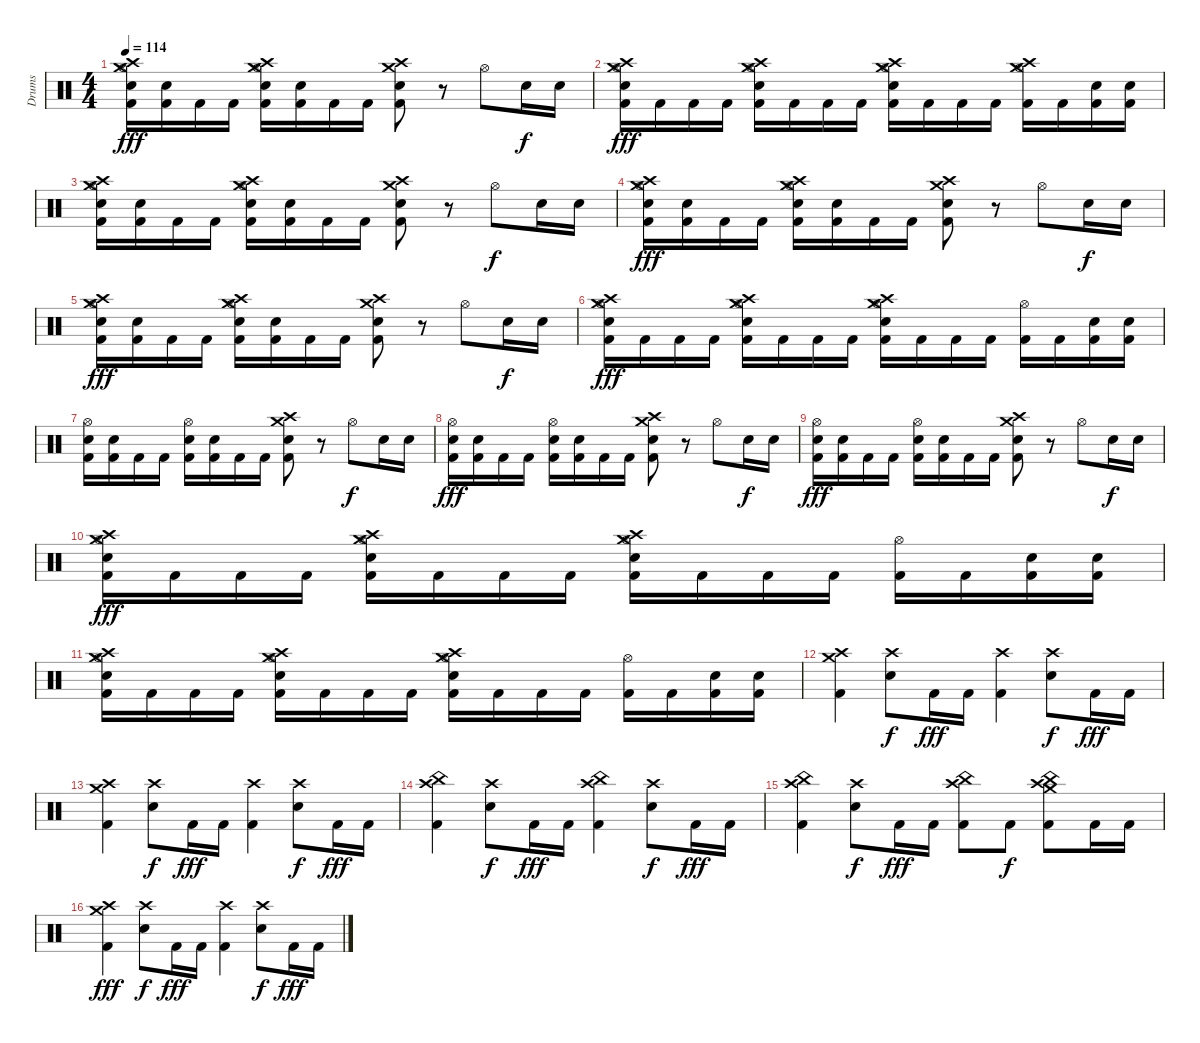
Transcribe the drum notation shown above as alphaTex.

\track ("Drums" "Drums") {instrument percussion}
\staff {score}
\articulation defaults
\ts (4 4)
\tempo 114
\clef neutral
\ks c
("Crash medium (hit)" "Crash high (hit)" "Hi-Hat (open)" "Snare (hit) 2" "Kick (hit) 2").16{dy fff} ("Snare (hit) 2" "Kick (hit) 2").16 "Kick (hit) 2".16 "Kick (hit) 2".16 ("Crash medium (hit)" "Crash high (hit)" "Hi-Hat (open)" "Snare (hit) 2" "Kick (hit) 2").16 ("Snare (hit) 2" "Kick (hit) 2").16 "Kick (hit) 2".16 "Kick (hit) 2".16 ("Crash medium (hit)" "Crash high (hit)" "Snare (hit) 2" "Kick (hit) 2").8 r.8 "Hi-Hat (open)".8 "Snare (hit) 2".16{dy f} "Snare (hit) 2".16 |
("Crash medium (hit)" "Crash high (hit)" "Hi-Hat (open)" "Snare (hit) 2" "Kick (hit) 2").16{dy fff} "Kick (hit) 2".16 "Kick (hit) 2".16 "Kick (hit) 2".16 ("Crash medium (hit)" "Crash high (hit)" "Hi-Hat (open)" "Snare (hit) 2" "Kick (hit) 2").16 "Kick (hit) 2".16 "Kick (hit) 2".16 "Kick (hit) 2".16 ("Crash medium (hit)" "Crash high (hit)" "Hi-Hat (open)" "Snare (hit) 2" "Kick (hit) 2").16 "Kick (hit) 2".16 "Kick (hit) 2".16 "Kick (hit) 2".16 ("Crash medium (hit)" "Crash high (hit)" "Hi-Hat (open)" "Kick (hit) 2").16 "Kick (hit) 2".16 ("Snare (hit) 2" "Kick (hit) 2").16 ("Snare (hit) 2" "Kick (hit) 2").16 |
("Crash medium (hit)" "Crash high (hit)" "Hi-Hat (open)" "Snare (hit) 2" "Kick (hit) 2").16 ("Snare (hit) 2" "Kick (hit) 2").16 "Kick (hit) 2".16 "Kick (hit) 2".16 ("Crash medium (hit)" "Crash high (hit)" "Hi-Hat (open)" "Snare (hit) 2" "Kick (hit) 2").16 ("Snare (hit) 2" "Kick (hit) 2").16 "Kick (hit) 2".16 "Kick (hit) 2".16 ("Crash medium (hit)" "Crash high (hit)" "Snare (hit) 2" "Kick (hit) 2").8 r.8 "Hi-Hat (open)".8{dy f} "Snare (hit) 2".16 "Snare (hit) 2".16 |
("Crash medium (hit)" "Crash high (hit)" "Hi-Hat (open)" "Snare (hit) 2" "Kick (hit) 2").16{dy fff} ("Snare (hit) 2" "Kick (hit) 2").16 "Kick (hit) 2".16 "Kick (hit) 2".16 ("Crash medium (hit)" "Crash high (hit)" "Hi-Hat (open)" "Snare (hit) 2" "Kick (hit) 2").16 ("Snare (hit) 2" "Kick (hit) 2").16 "Kick (hit) 2".16 "Kick (hit) 2".16 ("Crash medium (hit)" "Crash high (hit)" "Snare (hit) 2" "Kick (hit) 2").8 r.8 "Hi-Hat (open)".8 "Snare (hit) 2".16{dy f} "Snare (hit) 2".16 |
("Crash medium (hit)" "Crash high (hit)" "Hi-Hat (open)" "Snare (hit) 2" "Kick (hit) 2").16{dy fff} ("Snare (hit) 2" "Kick (hit) 2").16 "Kick (hit) 2".16 "Kick (hit) 2".16 ("Crash medium (hit)" "Crash high (hit)" "Hi-Hat (open)" "Snare (hit) 2" "Kick (hit) 2").16 ("Snare (hit) 2" "Kick (hit) 2").16 "Kick (hit) 2".16 "Kick (hit) 2".16 ("Crash medium (hit)" "Crash high (hit)" "Snare (hit) 2" "Kick (hit) 2").8 r.8 "Hi-Hat (open)".8 "Snare (hit) 2".16{dy f} "Snare (hit) 2".16 |
("Crash medium (hit)" "Crash high (hit)" "Hi-Hat (open)" "Snare (hit) 2" "Kick (hit) 2").16{dy fff} "Kick (hit) 2".16 "Kick (hit) 2".16 "Kick (hit) 2".16 ("Crash medium (hit)" "Crash high (hit)" "Hi-Hat (open)" "Snare (hit) 2" "Kick (hit) 2").16 "Kick (hit) 2".16 "Kick (hit) 2".16 "Kick (hit) 2".16 ("Crash medium (hit)" "Crash high (hit)" "Hi-Hat (open)" "Snare (hit) 2" "Kick (hit) 2").16 "Kick (hit) 2".16 "Kick (hit) 2".16 "Kick (hit) 2".16 ("Hi-Hat (open)" "Kick (hit) 2").16 "Kick (hit) 2".16 ("Snare (hit) 2" "Kick (hit) 2").16 ("Snare (hit) 2" "Kick (hit) 2").16 |
("Hi-Hat (open)" "Snare (hit) 2" "Kick (hit) 2").16 ("Snare (hit) 2" "Kick (hit) 2").16 "Kick (hit) 2".16 "Kick (hit) 2".16 ("Hi-Hat (open)" "Snare (hit) 2" "Kick (hit) 2").16 ("Snare (hit) 2" "Kick (hit) 2").16 "Kick (hit) 2".16 "Kick (hit) 2".16 ("Crash medium (hit)" "Crash high (hit)" "Snare (hit) 2" "Kick (hit) 2").8 r.8 "Hi-Hat (open)".8{dy f} "Snare (hit) 2".16 "Snare (hit) 2".16 |
("Hi-Hat (open)" "Snare (hit) 2" "Kick (hit) 2").16{dy fff} ("Snare (hit) 2" "Kick (hit) 2").16 "Kick (hit) 2".16 "Kick (hit) 2".16 ("Hi-Hat (open)" "Snare (hit) 2" "Kick (hit) 2").16 ("Snare (hit) 2" "Kick (hit) 2").16 "Kick (hit) 2".16 "Kick (hit) 2".16 ("Crash medium (hit)" "Crash high (hit)" "Snare (hit) 2" "Kick (hit) 2").8 r.8 "Hi-Hat (open)".8 "Snare (hit) 2".16{dy f} "Snare (hit) 2".16 |
("Hi-Hat (open)" "Snare (hit) 2" "Kick (hit) 2").16{dy fff} ("Snare (hit) 2" "Kick (hit) 2").16 "Kick (hit) 2".16 "Kick (hit) 2".16 ("Hi-Hat (open)" "Snare (hit) 2" "Kick (hit) 2").16 ("Snare (hit) 2" "Kick (hit) 2").16 "Kick (hit) 2".16 "Kick (hit) 2".16 ("Crash medium (hit)" "Crash high (hit)" "Snare (hit) 2" "Kick (hit) 2").8 r.8 "Hi-Hat (open)".8 "Snare (hit) 2".16{dy f} "Snare (hit) 2".16 |
("Crash medium (hit)" "Crash high (hit)" "Hi-Hat (open)" "Snare (hit) 2" "Kick (hit) 2").16{dy fff} "Kick (hit) 2".16 "Kick (hit) 2".16 "Kick (hit) 2".16 ("Crash medium (hit)" "Crash high (hit)" "Hi-Hat (open)" "Snare (hit) 2" "Kick (hit) 2").16 "Kick (hit) 2".16 "Kick (hit) 2".16 "Kick (hit) 2".16 ("Crash medium (hit)" "Crash high (hit)" "Hi-Hat (open)" "Snare (hit) 2" "Kick (hit) 2").16 "Kick (hit) 2".16 "Kick (hit) 2".16 "Kick (hit) 2".16 ("Hi-Hat (open)" "Kick (hit) 2").16 "Kick (hit) 2".16 ("Snare (hit) 2" "Kick (hit) 2").16 ("Snare (hit) 2" "Kick (hit) 2").16 |
("Crash medium (hit)" "Crash high (hit)" "Hi-Hat (open)" "Snare (hit) 2" "Kick (hit) 2").16 "Kick (hit) 2".16 "Kick (hit) 2".16 "Kick (hit) 2".16 ("Crash medium (hit)" "Crash high (hit)" "Hi-Hat (open)" "Snare (hit) 2" "Kick (hit) 2").16 "Kick (hit) 2".16 "Kick (hit) 2".16 "Kick (hit) 2".16 ("Crash medium (hit)" "Crash high (hit)" "Hi-Hat (open)" "Snare (hit) 2" "Kick (hit) 2").16 "Kick (hit) 2".16 "Kick (hit) 2".16 "Kick (hit) 2".16 ("Hi-Hat (open)" "Kick (hit) 2").16 "Kick (hit) 2".16 ("Snare (hit) 2" "Kick (hit) 2").16 ("Snare (hit) 2" "Kick (hit) 2").16 |
("Crash high (hit)" "Crash medium (hit)" "Kick (hit) 2").4 ("Crash high (hit)" "Snare (hit) 2").8{dy f} "Kick (hit) 2".16{dy fff} "Kick (hit) 2".16 ("Crash high (hit)" "Kick (hit) 2").4 ("Crash high (hit)" "Snare (hit) 2").8{dy f} "Kick (hit) 2".16{dy fff} "Kick (hit) 2".16 |
("Crash high (hit)" "Crash medium (hit)" "Kick (hit) 2").4 ("Crash high (hit)" "Snare (hit) 2").8{dy f} "Kick (hit) 2".16{dy fff} "Kick (hit) 2".16 ("Crash high (hit)" "Kick (hit) 2").4 ("Crash high (hit)" "Snare (hit) 2").8{dy f} "Kick (hit) 2".16{dy fff} "Kick (hit) 2".16 |
("Crash high (hit)" "China (hit)" "Kick (hit) 2").4 ("Crash high (hit)" "Snare (hit) 2").8{dy f} "Kick (hit) 2".16{dy fff} "Kick (hit) 2".16 ("Crash high (hit)" "China (hit)" "Kick (hit) 2").4 ("Crash high (hit)" "Snare (hit) 2").8{dy f} "Kick (hit) 2".16{dy fff} "Kick (hit) 2".16 |
("Crash high (hit)" "China (hit)" "Kick (hit) 2").4 ("Crash high (hit)" "Snare (hit) 2").8{dy f} "Kick (hit) 2".16{dy fff} "Kick (hit) 2".16 ("Crash high (hit)" "China (hit)" "Kick (hit) 2").8 "Kick (hit) 2".8{dy f} ("Crash high (hit)" "Crash medium (hit)" "Kick (hit) 2" "China (hit)").8 "Kick (hit) 2".16 "Kick (hit) 2".16 |
("Crash high (hit)" "Crash medium (hit)" "Kick (hit) 2").4{dy fff} ("Crash high (hit)" "Snare (hit) 2").8{dy f} "Kick (hit) 2".16{dy fff} "Kick (hit) 2".16 ("Crash high (hit)" "Kick (hit) 2").4 ("Crash high (hit)" "Snare (hit) 2").8{dy f} "Kick (hit) 2".16{dy fff} "Kick (hit) 2".16
